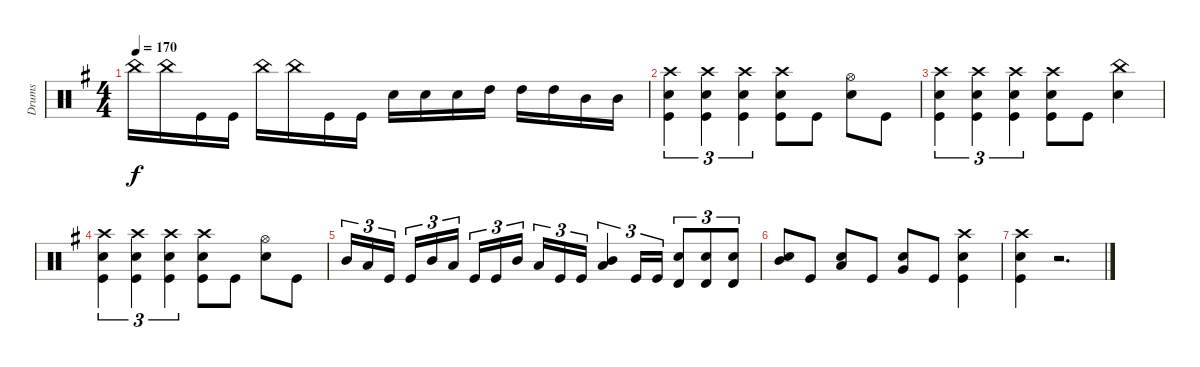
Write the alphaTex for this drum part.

\track ("Drums" "Drums") {instrument percussion}
\staff {score}
\articulation defaults
\ts (4 4)
\tempo 170
\clef neutral
\ks g "China (hit)".16{dy f} "China (hit)".16 "Kick (hit)".16 "Kick (hit)".16 "China (hit)".16 "China (hit)".16 "Kick (hit)".16 "Kick (hit)".16 "Snare (hit) 2".16 "Snare (hit) 2".16 "Snare (hit) 2".16 "High Tom (hit)".16 "High Tom (hit)".16 "High Tom (hit)".16 "Mid Tom (hit)".16 "Mid Tom (hit)".16
|
("Crash high (hit)" "Snare (hit) 2" "Kick (hit)").4{tu (3 2)} ("Crash high (hit)" "Snare (hit) 2" "Kick (hit)").4{tu (3 2)} ("Crash high (hit)" "Snare (hit) 2" "Kick (hit)").4{tu (3 2)} ("Crash high (hit)" "Snare (hit) 2" "Kick (hit)").8 "Kick (hit)".8 ("Hi-Hat (open)" "Electric Snare (hit)").8 "Kick (hit)".8 |
("Crash high (hit)" "Snare (hit) 2" "Kick (hit)").4{tu (3 2)} ("Crash high (hit)" "Snare (hit) 2" "Kick (hit)").4{tu (3 2)} ("Crash high (hit)" "Snare (hit) 2" "Kick (hit)").4{tu (3 2)} ("Crash high (hit)" "Snare (hit) 2" "Kick (hit)").8 "Kick (hit)".8 ("China (hit)" "Electric Snare (hit)").4 |
("Crash high (hit)" "Snare (hit) 2" "Kick (hit)").4{tu (3 2)} ("Crash high (hit)" "Snare (hit) 2" "Kick (hit)").4{tu (3 2)} ("Crash high (hit)" "Snare (hit) 2" "Kick (hit)").4{tu (3 2)} ("Crash high (hit)" "Snare (hit) 2" "Kick (hit)").8 "Kick (hit)".8 ("Hi-Hat (open)" "Electric Snare (hit)").8 "Kick (hit)".8 |
"Mid Tom (hit)".16{tu (3 2)} "Low Tom (hit)".16{tu (3 2)} "Kick (hit)".16{tu (3 2)} "Kick (hit)".16{tu (3 2)} "Mid Tom (hit)".16{tu (3 2)} "Low Tom (hit)".16{tu (3 2)} "Kick (hit)".16{tu (3 2)} "Kick (hit)".16{tu (3 2)} "Mid Tom (hit)".16{tu (3 2)} "Low Tom (hit)".16{tu (3 2)} "Kick (hit)".16{tu (3 2)} "Kick (hit)".16{tu (3 2)} ("Low Tom (hit)" "Mid Tom (hit)").4{tu (3 2)} "Kick (hit)".16{tu (3 2)} "Kick (hit)".16{tu (3 2)} ("Timbale high (hit)" "Electric Snare (hit)").8{tu (3 2)} ("Timbale high (hit)" "Electric Snare (hit)").8{tu (3 2)} ("Timbale high (hit)" "Electric Snare (hit)").8{tu (3 2)} |
("Snare (hit) 2" "Mid Tom (hit)").8 "Kick (hit)".8 ("Snare (hit) 2" "Low Tom (hit)").8 "Kick (hit)".8 ("Snare (hit) 2" "Very Low Tom (hit)").8 "Kick (hit)".8 ("Crash high (hit)" "Snare (hit) 2" "Kick (hit)").4 |
("Crash high (hit)" "Snare (hit) 2" "Kick (hit)").4 r.2{d}
